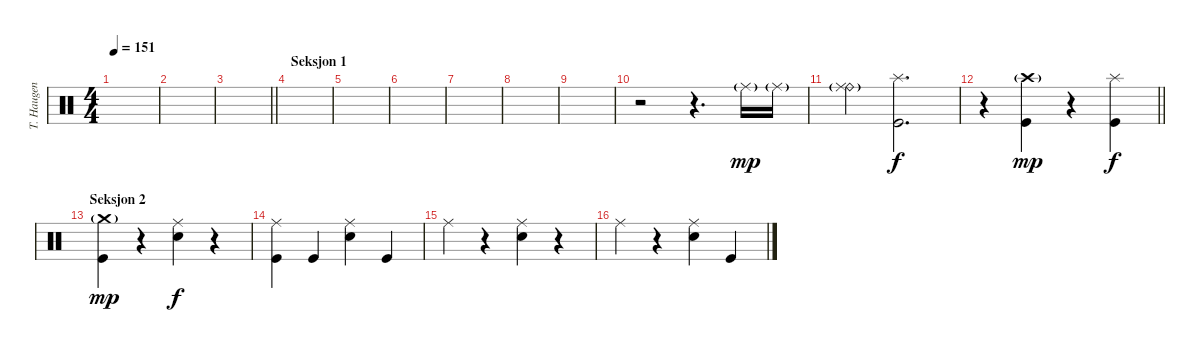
\track ("T. Haugen" "T. Haugen") {instrument percussion}
\staff {score}
\articulation defaults
\ts (4 4)
\tempo 151
\clef neutral
\ks c
|
|
\barLineRight lightlight
|
\section ("" "Seksjon 1")
|
|
|
|
|
|
r.2 r.4{d} "Ride (middle)"{g}.16{dy mp} "Ride (middle)"{g}.16 |
("Ride (bell)" "Ride (middle)"{g}).4 ("Splash (hit)" "Kick (hit)").2{d dy f} |
\barLineRight lightlight
r.4 ("Crash high (hit)"{g} "Kick (hit)").4{dy mp} r.4{volume 0} ("Splash (hit)" "Kick (hit)").4{dy f volume 16} |
\section ("" "Seksjon 2")
("Crash medium (hit)"{g} "Kick (hit)").4{dy mp} r.4 ("Ride (middle)" "Electric Snare (hit)").4{dy f} r.4 |
("Ride (middle)" "Kick (hit)").4 "Kick (hit)".4 ("Ride (middle)" "Electric Snare (hit)").4 "Kick (hit)".4 |
"Ride (middle)".4 r.4 ("Ride (middle)" "Electric Snare (hit)").4 r.4 |
"Ride (middle)".4 r.4 ("Ride (middle)" "Electric Snare (hit)").4 "Kick (hit)".4
